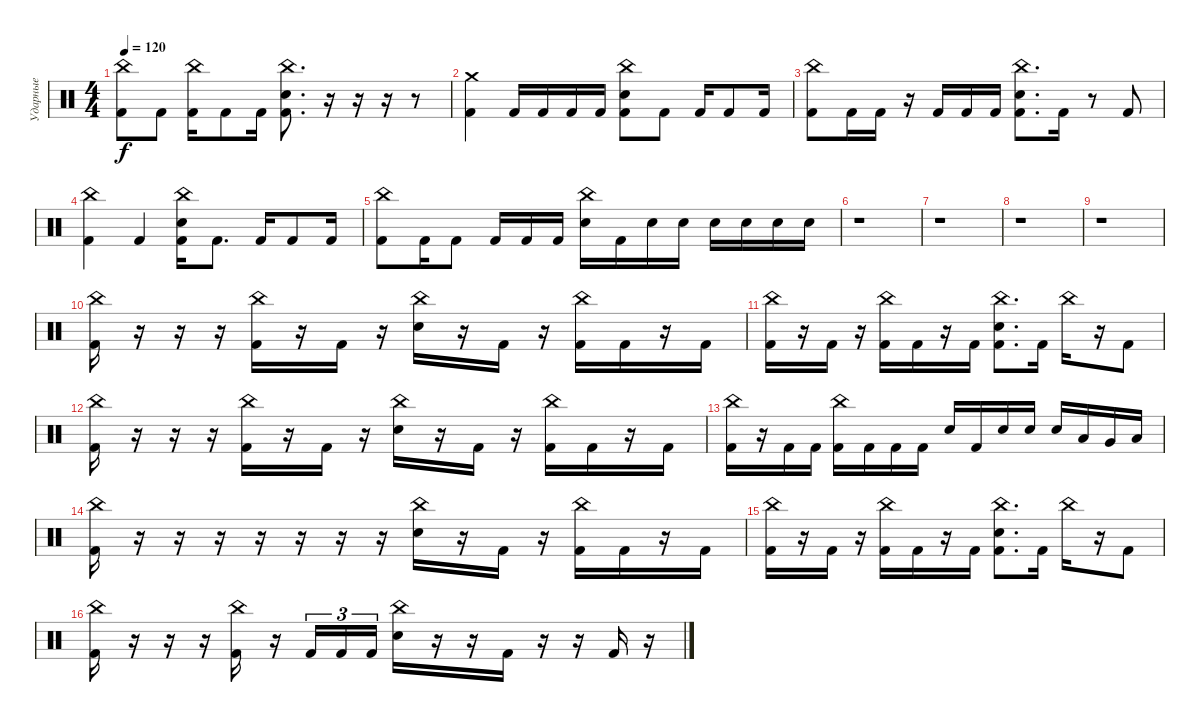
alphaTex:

\track ("Ударные" "Ударные") {instrument percussion}
\staff {score}
\articulation defaults
\ts (4 4)
\tempo 120
\clef neutral
\ks c
("China (hit)" "Kick (hit) 2").8{dy f} "Kick (hit) 2".8 ("China (hit)" "Kick (hit) 2").16 "Kick (hit) 2".8 "Kick (hit) 2".16 ("China (hit)" "Electric Snare (hit)" "Kick (hit) 2").8{d} r.16 r.16 r.16 r.8 |
("Crash medium (hit)" "Kick (hit) 2").4 "Kick (hit) 2".16 "Kick (hit) 2".16 "Kick (hit) 2".16 "Kick (hit) 2".16 ("China (hit)" "Electric Snare (hit)" "Kick (hit) 2").8 "Kick (hit) 2".8 "Kick (hit) 2".16 "Kick (hit) 2".8 "Kick (hit) 2".16 |
("China (hit)" "Kick (hit) 2").8 "Kick (hit) 2".16 "Kick (hit) 2".16 r.16 "Kick (hit) 2".16 "Kick (hit) 2".16 "Kick (hit) 2".16 ("China (hit)" "Electric Snare (hit)" "Kick (hit) 2").8{d} "Kick (hit) 2".16 r.8 "Kick (hit) 2".8 |
("China (hit)" "Kick (hit) 2").4 "Kick (hit) 2".4 ("China (hit)" "Electric Snare (hit)" "Kick (hit) 2").16 "Kick (hit) 2".8{d} "Kick (hit) 2".16 "Kick (hit) 2".8 "Kick (hit) 2".16 |
("China (hit)" "Kick (hit) 2").8 "Kick (hit) 2".16 "Kick (hit) 2".8 "Kick (hit) 2".16 "Kick (hit) 2".16 "Kick (hit) 2".16 ("China (hit)" "Electric Snare (hit)").16 "Kick (hit) 2".16 "Electric Snare (hit)".16 "Electric Snare (hit)".16 "Electric Snare (hit)".16 "Electric Snare (hit)".16 "Electric Snare (hit)".16 "Electric Snare (hit)".16 |
r.1 |
r.1 |
r.1 |
r.1 |
("China (hit)" "Kick (hit) 2").16 r.16 r.16 r.16 ("China (hit)" "Kick (hit) 2").16 r.16 "Kick (hit) 2".16 r.16 ("China (hit)" "Electric Snare (hit)").16 r.16 "Kick (hit) 2".16 r.16 ("China (hit)" "Kick (hit) 2").16 "Kick (hit) 2".16 r.16 "Kick (hit) 2".16 |
("China (hit)" "Kick (hit) 2").16 r.16 "Kick (hit) 2".16 r.16 ("China (hit)" "Kick (hit) 2").16 "Kick (hit) 2".16 r.16 "Kick (hit) 2".16 ("China (hit)" "Electric Snare (hit)" "Kick (hit) 2").8{d} "Kick (hit) 2".16 "China (hit)".16 r.16 "Kick (hit) 2".8 |
("China (hit)" "Kick (hit) 2").16 r.16 r.16 r.16 ("China (hit)" "Kick (hit) 2").16 r.16 "Kick (hit) 2".16 r.16 ("China (hit)" "Electric Snare (hit)").16 r.16 "Kick (hit) 2".16 r.16 ("China (hit)" "Kick (hit) 2").16 "Kick (hit) 2".16 r.16 "Kick (hit) 2".16 |
("China (hit)" "Kick (hit) 2").16 r.16 "Kick (hit) 2".16 "Kick (hit) 2".16 ("China (hit)" "Kick (hit) 2").16 "Kick (hit) 2".16 "Kick (hit) 2".16 "Kick (hit) 2".16 "Electric Snare (hit)".16 "Kick (hit) 2".16 "Electric Snare (hit)".16 "Electric Snare (hit)".16 "Electric Snare (hit)".16 "Low Tom (hit)".16 "Very Low Tom (hit)".16 "Low Floor Tom (hit)".16 |
("China (hit)" "Kick (hit) 2").16 r.16 r.16 r.16 r.16 r.16 r.16 r.16 ("China (hit)" "Electric Snare (hit)").16 r.16 "Kick (hit) 2".16 r.16 ("China (hit)" "Kick (hit) 2").16 "Kick (hit) 2".16 r.16 "Kick (hit) 2".16 |
("China (hit)" "Kick (hit) 2").16 r.16 "Kick (hit) 2".16 r.16 ("China (hit)" "Kick (hit) 2").16 "Kick (hit) 2".16 r.16 "Kick (hit) 2".16 ("China (hit)" "Electric Snare (hit)" "Kick (hit) 2").8{d} "Kick (hit) 2".16 "China (hit)".16 r.16 "Kick (hit) 2".8 |
("China (hit)" "Kick (hit) 2").16 r.16 r.16 r.16 ("China (hit)" "Kick (hit) 2").16 r.16 "Kick (hit) 2".16{tu (3 2)} "Kick (hit) 2".16{tu (3 2)} "Kick (hit) 2".16{tu (3 2)} ("China (hit)" "Electric Snare (hit)").16 r.16 r.16 "Kick (hit) 2".16 r.16 r.16 "Kick (hit) 2".16 r.16
